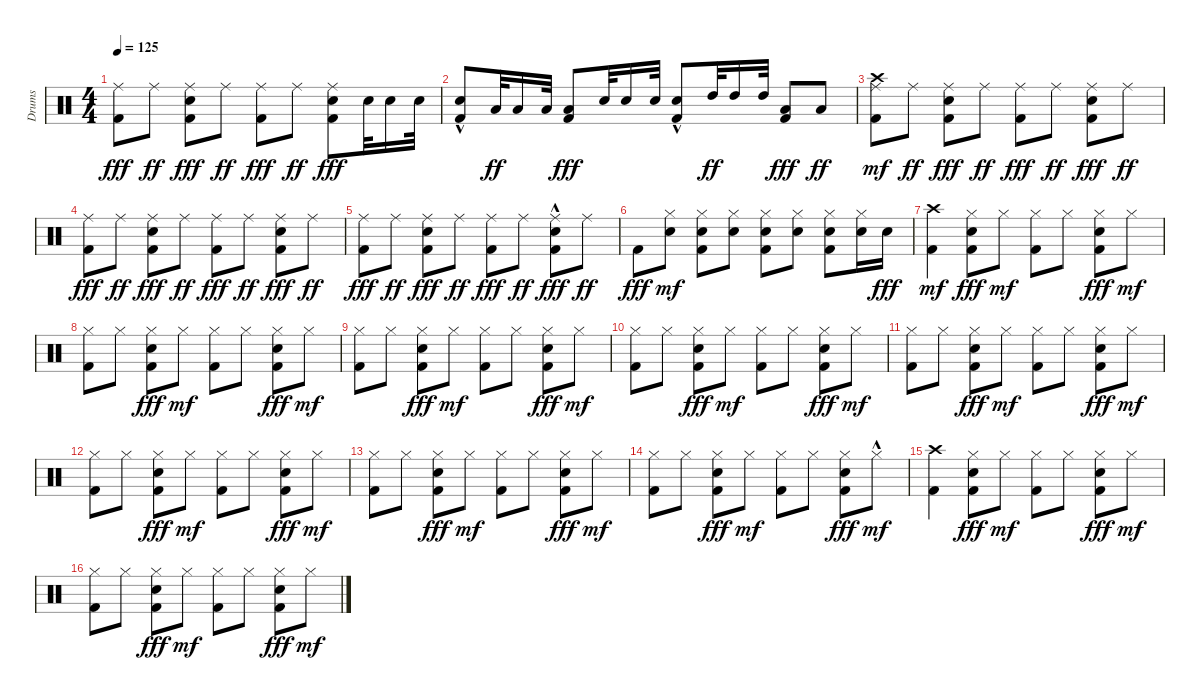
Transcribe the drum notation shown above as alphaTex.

\track ("Drums" "Drums") {instrument percussion}
\staff {score}
\articulation defaults
\ts (4 4)
\tempo 125
\clef neutral
\ks c
("Ride (middle)" "Kick (hit) 2").8{dy fff} "Ride (middle)".8{dy ff} ("Ride (middle)" "Snare (hit) 2" "Kick (hit) 2").8{dy fff} "Ride (middle)".8{dy ff} ("Ride (middle)" "Kick (hit) 2").8{dy fff} "Ride (middle)".8{dy ff} ("Ride (middle)" "Snare (hit) 2" "Kick (hit) 2").8{dy fff} "Snare (hit) 2".32 "Snare (hit) 2".16 "Snare (hit) 2".32 |
("Snare (hit) 2"{hac} "Kick (hit) 2").8 "Low Floor Tom (hit)".32{dy ff} "Low Floor Tom (hit)".16 "Low Floor Tom (hit)".32 ("Low Floor Tom (hit)" "Kick (hit) 2").8{dy fff} "Snare (hit) 2".32 "Snare (hit) 2".16 "Snare (hit) 2".32 ("Snare (hit) 2"{hac} "Kick (hit) 2").8 "High Tom (hit)".32{dy ff} "High Tom (hit)".16 "High Tom (hit)".32 ("Low Tom (hit)" "Kick (hit) 2").8{dy fff} "Low Floor Tom (hit)".8{dy ff} |
("Ride (middle)" "Kick (hit) 2" "Crash high (hit)").8{dy mf} "Ride (middle)".8{dy ff} ("Ride (middle)" "Snare (hit) 2" "Kick (hit) 2").8{dy fff} "Ride (middle)".8{dy ff} ("Ride (middle)" "Kick (hit) 2").8{dy fff} "Ride (middle)".8{dy ff} ("Ride (middle)" "Snare (hit) 2" "Kick (hit) 2").8{dy fff} "Ride (middle)".8{dy ff} |
("Ride (middle)" "Kick (hit) 2").8{dy fff} "Ride (middle)".8{dy ff} ("Ride (middle)" "Snare (hit) 2" "Kick (hit) 2").8{dy fff} "Ride (middle)".8{dy ff} ("Ride (middle)" "Kick (hit) 2").8{dy fff} "Ride (middle)".8{dy ff} ("Ride (middle)" "Snare (hit) 2" "Kick (hit) 2").8{dy fff} "Ride (middle)".8{dy ff} |
("Ride (middle)" "Kick (hit) 2").8{dy fff} "Ride (middle)".8{dy ff} ("Ride (middle)" "Snare (hit) 2" "Kick (hit) 2").8{dy fff} "Ride (middle)".8{dy ff} ("Ride (middle)" "Kick (hit) 2").8{dy fff} "Ride (middle)".8{dy ff} ("Ride (middle)" "Snare (hit) 2"{hac} "Kick (hit) 2").8{dy fff} "Ride (middle)".8{dy ff} |
"Kick (hit) 2".8{dy fff} ("Snare (hit) 2" "Hi-Hat (closed)").8{dy mf} ("Snare (hit) 2" "Kick (hit) 2" "Hi-Hat (closed)").8 ("Snare (hit) 2" "Hi-Hat (closed)").8 ("Snare (hit) 2" "Kick (hit) 2" "Hi-Hat (closed)").8 ("Snare (hit) 2" "Hi-Hat (closed)").8 ("Snare (hit) 2" "Kick (hit) 2" "Hi-Hat (closed)").8 ("Snare (hit) 2" "Hi-Hat (closed)").16 "Snare (hit) 2".16{dy fff} |
("Kick (hit) 2" "Crash high (hit)").4{dy mf} ("Snare (hit) 2" "Kick (hit) 2" "Hi-Hat (closed)").8{dy fff} "Hi-Hat (closed)".8{dy mf} ("Kick (hit) 2" "Hi-Hat (closed)").8 "Hi-Hat (closed)".8 ("Snare (hit) 2" "Kick (hit) 2" "Hi-Hat (closed)").8{dy fff} "Hi-Hat (closed)".8{dy mf} |
("Kick (hit) 2" "Hi-Hat (closed)").8 "Hi-Hat (closed)".8 ("Snare (hit) 2" "Kick (hit) 2" "Hi-Hat (closed)").8{dy fff} "Hi-Hat (closed)".8{dy mf} ("Kick (hit) 2" "Hi-Hat (closed)").8 "Hi-Hat (closed)".8 ("Snare (hit) 2" "Kick (hit) 2" "Hi-Hat (closed)").8{dy fff} "Hi-Hat (closed)".8{dy mf} |
("Kick (hit) 2" "Hi-Hat (closed)").8 "Hi-Hat (closed)".8 ("Snare (hit) 2" "Kick (hit) 2" "Hi-Hat (closed)").8{dy fff} "Hi-Hat (closed)".8{dy mf} ("Kick (hit) 2" "Hi-Hat (closed)").8 "Hi-Hat (closed)".8 ("Snare (hit) 2" "Kick (hit) 2" "Hi-Hat (closed)").8{dy fff} "Hi-Hat (closed)".8{dy mf} |
("Kick (hit) 2" "Hi-Hat (closed)").8 "Hi-Hat (closed)".8 ("Snare (hit) 2" "Kick (hit) 2" "Hi-Hat (closed)").8{dy fff} "Hi-Hat (closed)".8{dy mf} ("Kick (hit) 2" "Hi-Hat (closed)").8 "Hi-Hat (closed)".8 ("Snare (hit) 2" "Kick (hit) 2" "Hi-Hat (closed)").8{dy fff} "Hi-Hat (closed)".8{dy mf} |
("Kick (hit) 2" "Hi-Hat (closed)").8 "Hi-Hat (closed)".8 ("Snare (hit) 2" "Kick (hit) 2" "Hi-Hat (closed)").8{dy fff} "Hi-Hat (closed)".8{dy mf} ("Kick (hit) 2" "Hi-Hat (closed)").8 "Hi-Hat (closed)".8 ("Snare (hit) 2" "Kick (hit) 2" "Hi-Hat (closed)").8{dy fff} "Hi-Hat (closed)".8{dy mf} |
("Kick (hit) 2" "Hi-Hat (closed)").8 "Hi-Hat (closed)".8 ("Snare (hit) 2" "Kick (hit) 2" "Hi-Hat (closed)").8{dy fff} "Hi-Hat (closed)".8{dy mf} ("Kick (hit) 2" "Hi-Hat (closed)").8 "Hi-Hat (closed)".8 ("Snare (hit) 2" "Kick (hit) 2" "Hi-Hat (closed)").8{dy fff} "Hi-Hat (closed)".8{dy mf} |
("Kick (hit) 2" "Hi-Hat (closed)").8 "Hi-Hat (closed)".8 ("Snare (hit) 2" "Kick (hit) 2" "Hi-Hat (closed)").8{dy fff} "Hi-Hat (closed)".8{dy mf} ("Kick (hit) 2" "Hi-Hat (closed)").8 "Hi-Hat (closed)".8 ("Snare (hit) 2" "Kick (hit) 2" "Hi-Hat (closed)").8{dy fff} "Hi-Hat (closed)".8{dy mf} |
("Kick (hit) 2" "Hi-Hat (closed)").8 "Hi-Hat (closed)".8 ("Snare (hit) 2" "Kick (hit) 2" "Hi-Hat (closed)").8{dy fff} "Hi-Hat (closed)".8{dy mf} ("Kick (hit) 2" "Hi-Hat (closed)").8 "Hi-Hat (closed)".8 ("Snare (hit) 2" "Kick (hit) 2" "Hi-Hat (closed)").8{dy fff} "Hi-Hat (closed)"{hac}.8{dy mf} |
("Kick (hit) 2" "Crash high (hit)").4 ("Snare (hit) 2" "Kick (hit) 2" "Hi-Hat (closed)").8{dy fff} "Hi-Hat (closed)".8{dy mf} ("Kick (hit) 2" "Hi-Hat (closed)").8 "Hi-Hat (closed)".8 ("Snare (hit) 2" "Kick (hit) 2" "Hi-Hat (closed)").8{dy fff} "Hi-Hat (closed)".8{dy mf} |
("Kick (hit) 2" "Hi-Hat (closed)").8 "Hi-Hat (closed)".8 ("Snare (hit) 2" "Kick (hit) 2" "Hi-Hat (closed)").8{dy fff} "Hi-Hat (closed)".8{dy mf} ("Kick (hit) 2" "Hi-Hat (closed)").8 "Hi-Hat (closed)".8 ("Snare (hit) 2" "Kick (hit) 2" "Hi-Hat (closed)").8{dy fff} "Hi-Hat (closed)".8{dy mf}
